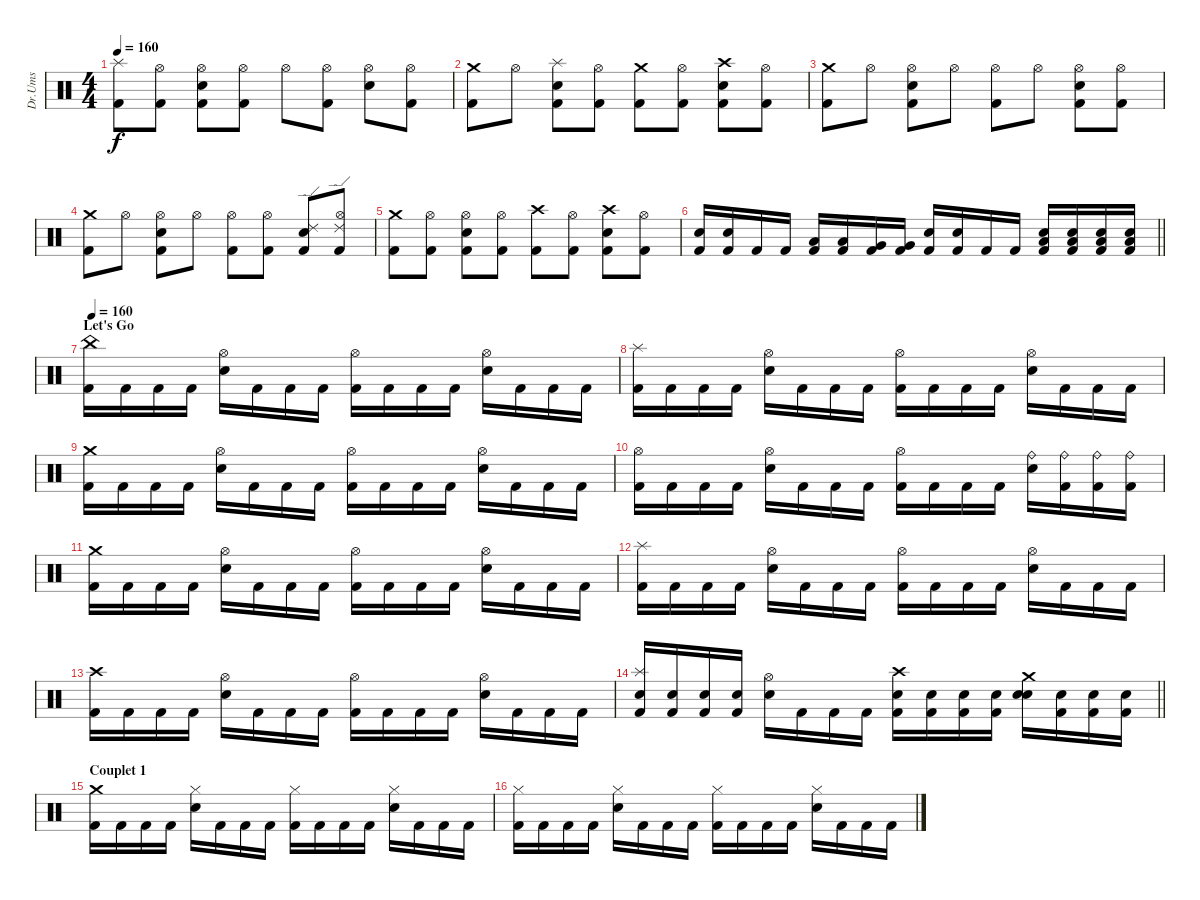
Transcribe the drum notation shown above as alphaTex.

\track ("Dr.Ums" "Dr.Ums") {instrument percussion}
\staff {score}
\articulation defaults
\ts (4 4)
\tempo 160
\clef neutral
\ks c
("Kick (hit) 2" "Splash (hit)").8{dy f} ("Hi-Hat (open)" "Kick (hit) 2").8 ("Snare (hit) 2" "Hi-Hat (open)" "Kick (hit) 2").8 ("Hi-Hat (open)" "Kick (hit) 2").8 "Hi-Hat (open)".8 ("Hi-Hat (open)" "Kick (hit) 2").8 ("Snare (hit) 2" "Hi-Hat (open)").8 ("Hi-Hat (open)" "Kick (hit) 2").8 |
("Kick (hit) 2" "Crash medium (hit)").8 "Hi-Hat (open)".8 ("Snare (hit) 2" "Splash (hit)" "Kick (hit) 2").8 ("Hi-Hat (open)" "Kick (hit) 2").8 ("Kick (hit) 2" "Crash medium (hit)").8 ("Hi-Hat (open)" "Kick (hit) 2").8 ("Snare (hit) 2" "Crash high (hit)" "Kick (hit) 2").8 ("Hi-Hat (open)" "Kick (hit) 2").8 |
("Kick (hit) 2" "Crash medium (hit)").8 "Hi-Hat (open)".8 ("Snare (hit) 2" "Hi-Hat (open)" "Kick (hit) 2").8 "Hi-Hat (open)".8 ("Kick (hit) 2" "Hi-Hat (open)").8 "Hi-Hat (open)".8 ("Snare (hit) 2" "Hi-Hat (open)" "Kick (hit) 2").8 ("Hi-Hat (open)" "Kick (hit) 2").8 |
("Kick (hit) 2" "Crash medium (hit)").8 "Hi-Hat (open)".8 ("Snare (hit) 2" "Hi-Hat (open)" "Kick (hit) 2").8 "Hi-Hat (open)".8 ("Kick (hit) 2" "Hi-Hat (open)").8 ("Hi-Hat (open)" "Kick (hit) 2").8 ("Snare (hit) 2" "Ride (edge) 2" "Kick (hit) 2").8 ("Hi-Hat (open)" "Ride (edge) 2" "Kick (hit) 2").8 |
("Kick (hit) 2" "Crash medium (hit)").8 ("Hi-Hat (open)" "Kick (hit) 2").8 ("Snare (hit) 2" "Hi-Hat (open)" "Kick (hit) 2").8 ("Hi-Hat (open)" "Kick (hit) 2").8 ("Kick (hit) 2" "Crash high (hit)").8 ("Hi-Hat (open)" "Kick (hit) 2").8 ("Snare (hit) 2" "Crash high (hit)" "Kick (hit) 2").8 ("Hi-Hat (open)" "Kick (hit) 2").8 |
\barLineRight lightlight
("Snare (hit) 2" "Kick (hit) 2").16 ("Snare (hit) 2" "Kick (hit) 2").16 "Kick (hit) 2".16 "Kick (hit) 2".16 ("Low Tom (hit)" "Kick (hit) 2").16 ("Low Tom (hit)" "Kick (hit) 2").16 ("Very Low Tom (hit)" "Kick (hit) 2").16 ("Very Low Tom (hit)" "Kick (hit) 2").16 ("Snare (hit) 2" "Kick (hit) 2").16 ("Snare (hit) 2" "Kick (hit) 2").16 "Kick (hit) 2".16 "Kick (hit) 2".16 ("Snare (hit) 2" "Low Floor Tom (hit)" "Kick (hit) 2").16 ("Snare (hit) 2" "Low Floor Tom (hit)" "Kick (hit) 2").16 ("Snare (hit) 2" "Low Floor Tom (hit)" "Kick (hit) 2").16 ("Snare (hit) 2" "Low Floor Tom (hit)" "Kick (hit) 2").16 |
\section ("" "Let's Go")
\tempo 160
("Kick (hit) 2" "China (hit)").16 "Kick (hit) 2".16 "Kick (hit) 2".16 "Kick (hit) 2".16 ("Snare (hit) 2" "Hi-Hat (open)").16 "Kick (hit) 2".16 "Kick (hit) 2".16 "Kick (hit) 2".16 ("Kick (hit) 2" "Hi-Hat (open)").16 "Kick (hit) 2".16 "Kick (hit) 2".16 "Kick (hit) 2".16 ("Snare (hit) 2" "Hi-Hat (open)").16 "Kick (hit) 2".16 "Kick (hit) 2".16 "Kick (hit) 2".16 |
("Kick (hit) 2" "Splash (hit)").16 "Kick (hit) 2".16 "Kick (hit) 2".16 "Kick (hit) 2".16 ("Snare (hit) 2" "Hi-Hat (open)").16 "Kick (hit) 2".16 "Kick (hit) 2".16 "Kick (hit) 2".16 ("Kick (hit) 2" "Hi-Hat (open)").16 "Kick (hit) 2".16 "Kick (hit) 2".16 "Kick (hit) 2".16 ("Snare (hit) 2" "Hi-Hat (open)").16 "Kick (hit) 2".16 "Kick (hit) 2".16 "Kick (hit) 2".16 |
("Kick (hit) 2" "Crash medium (hit)").16 "Kick (hit) 2".16 "Kick (hit) 2".16 "Kick (hit) 2".16 ("Snare (hit) 2" "Hi-Hat (open)").16 "Kick (hit) 2".16 "Kick (hit) 2".16 "Kick (hit) 2".16 ("Kick (hit) 2" "Hi-Hat (open)").16 "Kick (hit) 2".16 "Kick (hit) 2".16 "Kick (hit) 2".16 ("Snare (hit) 2" "Hi-Hat (open)").16 "Kick (hit) 2".16 "Kick (hit) 2".16 "Kick (hit) 2".16 |
("Kick (hit) 2" "Hi-Hat (open)").16 "Kick (hit) 2".16 "Kick (hit) 2".16 "Kick (hit) 2".16 ("Snare (hit) 2" "Hi-Hat (open)").16 "Kick (hit) 2".16 "Kick (hit) 2".16 "Kick (hit) 2".16 ("Kick (hit) 2" "Hi-Hat (open)").16 "Kick (hit) 2".16 "Kick (hit) 2".16 "Kick (hit) 2".16 ("Snare (hit) 2" "Ride (bell)").16 ("Kick (hit) 2" "Ride (bell)").16 ("Kick (hit) 2" "Ride (bell)").16 ("Kick (hit) 2" "Ride (bell)").16 |
("Kick (hit) 2" "Crash medium (hit)").16 "Kick (hit) 2".16 "Kick (hit) 2".16 "Kick (hit) 2".16 ("Snare (hit) 2" "Hi-Hat (open)").16 "Kick (hit) 2".16 "Kick (hit) 2".16 "Kick (hit) 2".16 ("Kick (hit) 2" "Hi-Hat (open)").16 "Kick (hit) 2".16 "Kick (hit) 2".16 "Kick (hit) 2".16 ("Snare (hit) 2" "Hi-Hat (open)").16 "Kick (hit) 2".16 "Kick (hit) 2".16 "Kick (hit) 2".16 |
("Kick (hit) 2" "Splash (hit)").16 "Kick (hit) 2".16 "Kick (hit) 2".16 "Kick (hit) 2".16 ("Snare (hit) 2" "Hi-Hat (open)").16 "Kick (hit) 2".16 "Kick (hit) 2".16 "Kick (hit) 2".16 ("Kick (hit) 2" "Hi-Hat (open)").16 "Kick (hit) 2".16 "Kick (hit) 2".16 "Kick (hit) 2".16 ("Snare (hit) 2" "Hi-Hat (open)").16 "Kick (hit) 2".16 "Kick (hit) 2".16 "Kick (hit) 2".16 |
("Kick (hit) 2" "Crash high (hit)").16 "Kick (hit) 2".16 "Kick (hit) 2".16 "Kick (hit) 2".16 ("Snare (hit) 2" "Hi-Hat (open)").16 "Kick (hit) 2".16 "Kick (hit) 2".16 "Kick (hit) 2".16 ("Kick (hit) 2" "Hi-Hat (open)").16 "Kick (hit) 2".16 "Kick (hit) 2".16 "Kick (hit) 2".16 ("Snare (hit) 2" "Hi-Hat (open)").16 "Kick (hit) 2".16 "Kick (hit) 2".16 "Kick (hit) 2".16 |
\barLineRight lightlight
("Kick (hit) 2" "Splash (hit)" "Snare (hit) 2").16 ("Kick (hit) 2" "Snare (hit) 2").16 ("Kick (hit) 2" "Snare (hit) 2").16 ("Kick (hit) 2" "Snare (hit) 2").16 ("Snare (hit) 2" "Hi-Hat (open)").16 "Kick (hit) 2".16 "Kick (hit) 2".16 "Kick (hit) 2".16 ("Kick (hit) 2" "Snare (hit) 2" "Crash high (hit)").16 ("Kick (hit) 2" "Snare (hit) 2").16 ("Kick (hit) 2" "Snare (hit) 2").16 ("Kick (hit) 2" "Snare (hit) 2").16 ("Snare (hit) 2" "Snare (hit) 2" "Crash medium (hit)").16 ("Kick (hit) 2" "Snare (hit) 2").16 ("Kick (hit) 2" "Snare (hit) 2").16 ("Kick (hit) 2" "Snare (hit) 2").16 |
\section ("" "Couplet 1")
("Kick (hit) 2" "Crash medium (hit)").16 "Kick (hit) 2".16 "Kick (hit) 2".16 "Kick (hit) 2".16 ("Snare (hit) 2" "Hi-Hat (closed)").16 "Kick (hit) 2".16 "Kick (hit) 2".16 "Kick (hit) 2".16 ("Kick (hit) 2" "Hi-Hat (closed)").16 "Kick (hit) 2".16 "Kick (hit) 2".16 "Kick (hit) 2".16 ("Snare (hit) 2" "Hi-Hat (closed)").16 "Kick (hit) 2".16 "Kick (hit) 2".16 "Kick (hit) 2".16 |
("Kick (hit) 2" "Hi-Hat (closed)").16 "Kick (hit) 2".16 "Kick (hit) 2".16 "Kick (hit) 2".16 ("Snare (hit) 2" "Hi-Hat (closed)").16 "Kick (hit) 2".16 "Kick (hit) 2".16 "Kick (hit) 2".16 ("Kick (hit) 2" "Hi-Hat (closed)").16 "Kick (hit) 2".16 "Kick (hit) 2".16 "Kick (hit) 2".16 ("Snare (hit) 2" "Hi-Hat (closed)").16 "Kick (hit) 2".16 "Kick (hit) 2".16 "Kick (hit) 2".16
